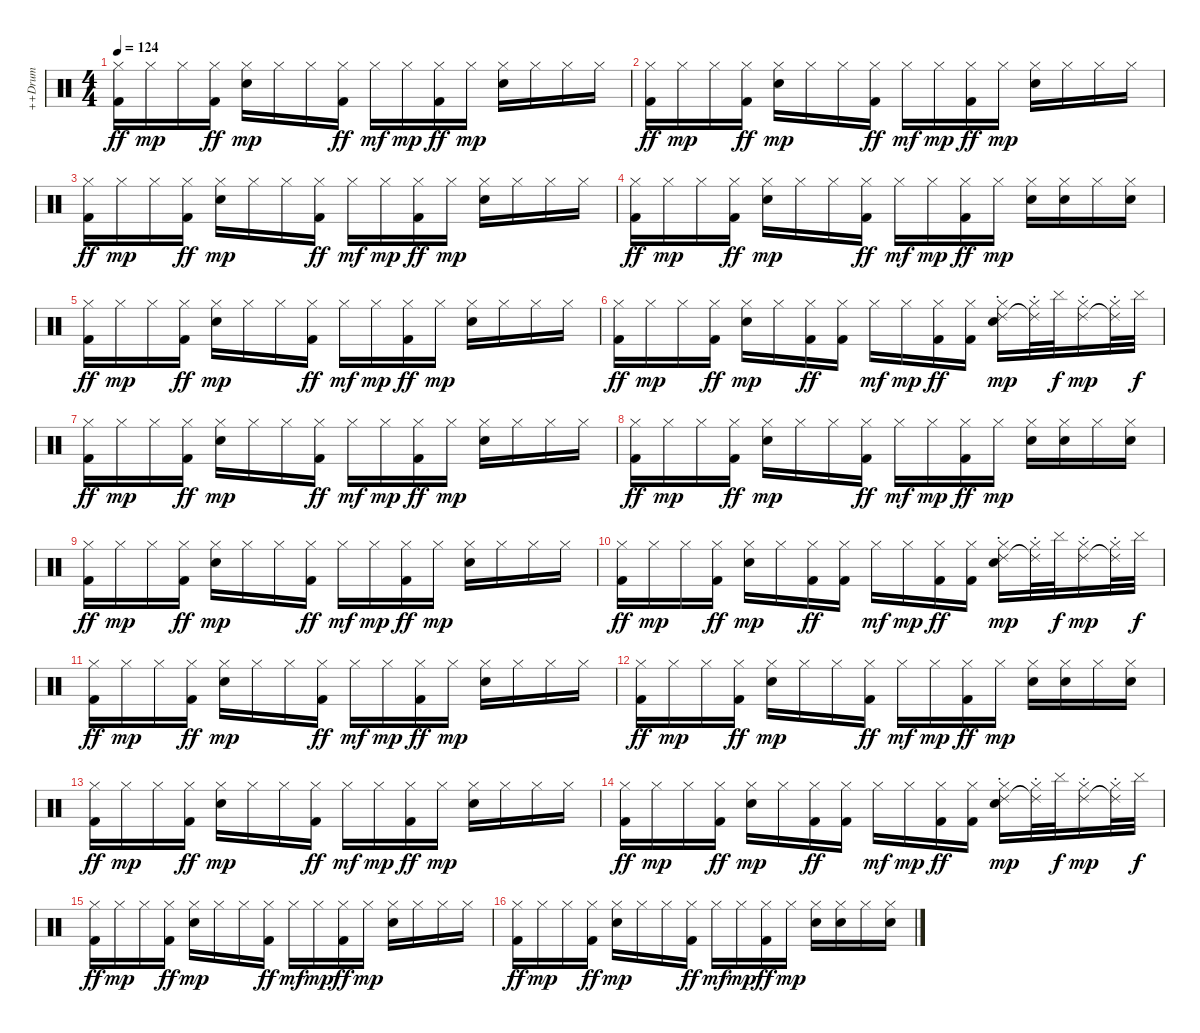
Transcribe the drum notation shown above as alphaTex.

\track ("++Drum" "++Drum") {instrument percussion}
\staff {score}
\articulation defaults
\ts (4 4)
\tempo 124
\clef neutral
\ks c
("Hi-Hat (closed)" "Kick (hit) 2").16{dy ff} "Hi-Hat (closed)".16{dy mp} "Hi-Hat (closed)".16 ("Hi-Hat (closed)" "Kick (hit) 2").16{dy ff} ("Hi-Hat (closed)" "Electric Snare (hit)").16{dy mp} "Hi-Hat (closed)".16 "Hi-Hat (closed)".16 ("Hi-Hat (closed)" "Kick (hit) 2").16{dy ff} "Hi-Hat (closed)".16{dy mf} "Hi-Hat (closed)".16{dy mp} ("Hi-Hat (closed)" "Kick (hit) 2").16{dy ff} "Hi-Hat (closed)".16{dy mp} ("Hi-Hat (closed)" "Electric Snare (hit)").16 "Hi-Hat (closed)".16 "Hi-Hat (closed)".16 "Hi-Hat (closed)".16 |
("Hi-Hat (closed)" "Kick (hit) 2").16{dy ff} "Hi-Hat (closed)".16{dy mp} "Hi-Hat (closed)".16 ("Hi-Hat (closed)" "Kick (hit) 2").16{dy ff} ("Hi-Hat (closed)" "Electric Snare (hit)").16{dy mp} "Hi-Hat (closed)".16 "Hi-Hat (closed)".16 ("Hi-Hat (closed)" "Kick (hit) 2").16{dy ff} "Hi-Hat (closed)".16{dy mf} "Hi-Hat (closed)".16{dy mp} ("Hi-Hat (closed)" "Kick (hit) 2").16{dy ff} "Hi-Hat (closed)".16{dy mp} ("Hi-Hat (closed)" "Electric Snare (hit)").16 "Hi-Hat (closed)".16 "Hi-Hat (closed)".16 "Hi-Hat (closed)".16 |
("Hi-Hat (closed)" "Kick (hit) 2").16{dy ff} "Hi-Hat (closed)".16{dy mp} "Hi-Hat (closed)".16 ("Hi-Hat (closed)" "Kick (hit) 2").16{dy ff} ("Hi-Hat (closed)" "Electric Snare (hit)").16{dy mp} "Hi-Hat (closed)".16 "Hi-Hat (closed)".16 ("Hi-Hat (closed)" "Kick (hit) 2").16{dy ff} "Hi-Hat (closed)".16{dy mf} "Hi-Hat (closed)".16{dy mp} ("Hi-Hat (closed)" "Kick (hit) 2").16{dy ff} "Hi-Hat (closed)".16{dy mp} ("Hi-Hat (closed)" "Electric Snare (hit)").16 "Hi-Hat (closed)".16 "Hi-Hat (closed)".16 "Hi-Hat (closed)".16 |
("Hi-Hat (closed)" "Kick (hit) 2").16{dy ff} "Hi-Hat (closed)".16{dy mp} "Hi-Hat (closed)".16 ("Hi-Hat (closed)" "Kick (hit) 2").16{dy ff} ("Hi-Hat (closed)" "Electric Snare (hit)").16{dy mp} "Hi-Hat (closed)".16 "Hi-Hat (closed)".16 ("Hi-Hat (closed)" "Kick (hit) 2").16{dy ff} "Hi-Hat (closed)".16{dy mf} "Hi-Hat (closed)".16{dy mp} ("Hi-Hat (closed)" "Kick (hit) 2").16{dy ff} "Hi-Hat (closed)".16{dy mp} ("Hi-Hat (closed)" "Electric Snare (hit)").16 ("Hi-Hat (closed)" "Electric Snare (hit)").16 "Hi-Hat (closed)".16 ("Hi-Hat (closed)" "Electric Snare (hit)").16 |
("Hi-Hat (closed)" "Kick (hit) 2").16{dy ff} "Hi-Hat (closed)".16{dy mp} "Hi-Hat (closed)".16 ("Hi-Hat (closed)" "Kick (hit) 2").16{dy ff} ("Hi-Hat (closed)" "Electric Snare (hit)").16{dy mp} "Hi-Hat (closed)".16 "Hi-Hat (closed)".16 ("Hi-Hat (closed)" "Kick (hit) 2").16{dy ff} "Hi-Hat (closed)".16{dy mf} "Hi-Hat (closed)".16{dy mp} ("Hi-Hat (closed)" "Kick (hit) 2").16{dy ff} "Hi-Hat (closed)".16{dy mp} ("Hi-Hat (closed)" "Electric Snare (hit)").16 "Hi-Hat (closed)".16 "Hi-Hat (closed)".16 "Hi-Hat (closed)".16 |
("Hi-Hat (closed)" "Kick (hit) 2").16{dy ff} "Hi-Hat (closed)".16{dy mp} "Hi-Hat (closed)".16 ("Hi-Hat (closed)" "Kick (hit) 2").16{dy ff} ("Hi-Hat (closed)" "Electric Snare (hit)").16{dy mp} "Hi-Hat (closed)".16 ("Hi-Hat (closed)" "Kick (hit) 2").16{dy ff} ("Hi-Hat (closed)" "Kick (hit) 2").16 "Hi-Hat (closed)".16{dy mf} "Hi-Hat (closed)".16{dy mp} ("Hi-Hat (closed)" "Kick (hit) 2").16{dy ff} ("Hi-Hat (closed)" "Kick (hit) 2").16 ("Hi-Hat (closed)" "Ride (choke) 2" "Electric Snare (hit)").16{dy mp} ("Hi-Hat (closed)" "Ride (choke) 2"{t}).32 "Cymbal (hit)".32{dy f} ("Hi-Hat (closed)" "Ride (choke) 2").16{dy mp} ("Hi-Hat (closed)" "Ride (choke) 2"{t}).32 "Cymbal (hit)".32{dy f} |
("Hi-Hat (closed)" "Kick (hit) 2").16{dy ff} "Hi-Hat (closed)".16{dy mp} "Hi-Hat (closed)".16 ("Hi-Hat (closed)" "Kick (hit) 2").16{dy ff} ("Hi-Hat (closed)" "Electric Snare (hit)").16{dy mp} "Hi-Hat (closed)".16 "Hi-Hat (closed)".16 ("Hi-Hat (closed)" "Kick (hit) 2").16{dy ff} "Hi-Hat (closed)".16{dy mf} "Hi-Hat (closed)".16{dy mp} ("Hi-Hat (closed)" "Kick (hit) 2").16{dy ff} "Hi-Hat (closed)".16{dy mp} ("Hi-Hat (closed)" "Electric Snare (hit)").16 "Hi-Hat (closed)".16 "Hi-Hat (closed)".16 "Hi-Hat (closed)".16 |
("Hi-Hat (closed)" "Kick (hit) 2").16{dy ff} "Hi-Hat (closed)".16{dy mp} "Hi-Hat (closed)".16 ("Hi-Hat (closed)" "Kick (hit) 2").16{dy ff} ("Hi-Hat (closed)" "Electric Snare (hit)").16{dy mp} "Hi-Hat (closed)".16 "Hi-Hat (closed)".16 ("Hi-Hat (closed)" "Kick (hit) 2").16{dy ff} "Hi-Hat (closed)".16{dy mf} "Hi-Hat (closed)".16{dy mp} ("Hi-Hat (closed)" "Kick (hit) 2").16{dy ff} "Hi-Hat (closed)".16{dy mp} ("Hi-Hat (closed)" "Electric Snare (hit)").16 ("Hi-Hat (closed)" "Electric Snare (hit)").16 "Hi-Hat (closed)".16 ("Hi-Hat (closed)" "Electric Snare (hit)").16 |
("Hi-Hat (closed)" "Kick (hit) 2").16{dy ff} "Hi-Hat (closed)".16{dy mp} "Hi-Hat (closed)".16 ("Hi-Hat (closed)" "Kick (hit) 2").16{dy ff} ("Hi-Hat (closed)" "Electric Snare (hit)").16{dy mp} "Hi-Hat (closed)".16 "Hi-Hat (closed)".16 ("Hi-Hat (closed)" "Kick (hit) 2").16{dy ff} "Hi-Hat (closed)".16{dy mf} "Hi-Hat (closed)".16{dy mp} ("Hi-Hat (closed)" "Kick (hit) 2").16{dy ff} "Hi-Hat (closed)".16{dy mp} ("Hi-Hat (closed)" "Electric Snare (hit)").16 "Hi-Hat (closed)".16 "Hi-Hat (closed)".16 "Hi-Hat (closed)".16 |
("Hi-Hat (closed)" "Kick (hit) 2").16{dy ff} "Hi-Hat (closed)".16{dy mp} "Hi-Hat (closed)".16 ("Hi-Hat (closed)" "Kick (hit) 2").16{dy ff} ("Hi-Hat (closed)" "Electric Snare (hit)").16{dy mp} "Hi-Hat (closed)".16 ("Hi-Hat (closed)" "Kick (hit) 2").16{dy ff} ("Hi-Hat (closed)" "Kick (hit) 2").16 "Hi-Hat (closed)".16{dy mf} "Hi-Hat (closed)".16{dy mp} ("Hi-Hat (closed)" "Kick (hit) 2").16{dy ff} ("Hi-Hat (closed)" "Kick (hit) 2").16 ("Hi-Hat (closed)" "Ride (choke) 2" "Electric Snare (hit)").16{dy mp} ("Hi-Hat (closed)" "Ride (choke) 2"{t}).32 "Cymbal (hit)".32{dy f} ("Hi-Hat (closed)" "Ride (choke) 2").16{dy mp} ("Hi-Hat (closed)" "Ride (choke) 2"{t}).32 "Cymbal (hit)".32{dy f} |
("Hi-Hat (closed)" "Kick (hit) 2").16{dy ff} "Hi-Hat (closed)".16{dy mp} "Hi-Hat (closed)".16 ("Hi-Hat (closed)" "Kick (hit) 2").16{dy ff} ("Hi-Hat (closed)" "Electric Snare (hit)").16{dy mp} "Hi-Hat (closed)".16 "Hi-Hat (closed)".16 ("Hi-Hat (closed)" "Kick (hit) 2").16{dy ff} "Hi-Hat (closed)".16{dy mf} "Hi-Hat (closed)".16{dy mp} ("Hi-Hat (closed)" "Kick (hit) 2").16{dy ff} "Hi-Hat (closed)".16{dy mp} ("Hi-Hat (closed)" "Electric Snare (hit)").16 "Hi-Hat (closed)".16 "Hi-Hat (closed)".16 "Hi-Hat (closed)".16 |
("Hi-Hat (closed)" "Kick (hit) 2").16{dy ff} "Hi-Hat (closed)".16{dy mp} "Hi-Hat (closed)".16 ("Hi-Hat (closed)" "Kick (hit) 2").16{dy ff} ("Hi-Hat (closed)" "Electric Snare (hit)").16{dy mp} "Hi-Hat (closed)".16 "Hi-Hat (closed)".16 ("Hi-Hat (closed)" "Kick (hit) 2").16{dy ff} "Hi-Hat (closed)".16{dy mf} "Hi-Hat (closed)".16{dy mp} ("Hi-Hat (closed)" "Kick (hit) 2").16{dy ff} "Hi-Hat (closed)".16{dy mp} ("Hi-Hat (closed)" "Electric Snare (hit)").16 ("Hi-Hat (closed)" "Electric Snare (hit)").16 "Hi-Hat (closed)".16 ("Hi-Hat (closed)" "Electric Snare (hit)").16 |
("Hi-Hat (closed)" "Kick (hit) 2").16{dy ff} "Hi-Hat (closed)".16{dy mp} "Hi-Hat (closed)".16 ("Hi-Hat (closed)" "Kick (hit) 2").16{dy ff} ("Hi-Hat (closed)" "Electric Snare (hit)").16{dy mp} "Hi-Hat (closed)".16 "Hi-Hat (closed)".16 ("Hi-Hat (closed)" "Kick (hit) 2").16{dy ff} "Hi-Hat (closed)".16{dy mf} "Hi-Hat (closed)".16{dy mp} ("Hi-Hat (closed)" "Kick (hit) 2").16{dy ff} "Hi-Hat (closed)".16{dy mp} ("Hi-Hat (closed)" "Electric Snare (hit)").16 "Hi-Hat (closed)".16 "Hi-Hat (closed)".16 "Hi-Hat (closed)".16 |
("Hi-Hat (closed)" "Kick (hit) 2").16{dy ff} "Hi-Hat (closed)".16{dy mp} "Hi-Hat (closed)".16 ("Hi-Hat (closed)" "Kick (hit) 2").16{dy ff} ("Hi-Hat (closed)" "Electric Snare (hit)").16{dy mp} "Hi-Hat (closed)".16 ("Hi-Hat (closed)" "Kick (hit) 2").16{dy ff} ("Hi-Hat (closed)" "Kick (hit) 2").16 "Hi-Hat (closed)".16{dy mf} "Hi-Hat (closed)".16{dy mp} ("Hi-Hat (closed)" "Kick (hit) 2").16{dy ff} ("Hi-Hat (closed)" "Kick (hit) 2").16 ("Hi-Hat (closed)" "Ride (choke) 2" "Electric Snare (hit)").16{dy mp} ("Hi-Hat (closed)" "Ride (choke) 2"{t}).32 "Cymbal (hit)".32{dy f} ("Hi-Hat (closed)" "Ride (choke) 2").16{dy mp} ("Hi-Hat (closed)" "Ride (choke) 2"{t}).32 "Cymbal (hit)".32{dy f} |
("Hi-Hat (closed)" "Kick (hit) 2").16{dy ff} "Hi-Hat (closed)".16{dy mp} "Hi-Hat (closed)".16 ("Hi-Hat (closed)" "Kick (hit) 2").16{dy ff} ("Hi-Hat (closed)" "Electric Snare (hit)").16{dy mp} "Hi-Hat (closed)".16 "Hi-Hat (closed)".16 ("Hi-Hat (closed)" "Kick (hit) 2").16{dy ff} "Hi-Hat (closed)".16{dy mf} "Hi-Hat (closed)".16{dy mp} ("Hi-Hat (closed)" "Kick (hit) 2").16{dy ff} "Hi-Hat (closed)".16{dy mp} ("Hi-Hat (closed)" "Electric Snare (hit)").16 "Hi-Hat (closed)".16 "Hi-Hat (closed)".16 "Hi-Hat (closed)".16 |
("Hi-Hat (closed)" "Kick (hit) 2").16{dy ff} "Hi-Hat (closed)".16{dy mp} "Hi-Hat (closed)".16 ("Hi-Hat (closed)" "Kick (hit) 2").16{dy ff} ("Hi-Hat (closed)" "Electric Snare (hit)").16{dy mp} "Hi-Hat (closed)".16 "Hi-Hat (closed)".16 ("Hi-Hat (closed)" "Kick (hit) 2").16{dy ff} "Hi-Hat (closed)".16{dy mf} "Hi-Hat (closed)".16{dy mp} ("Hi-Hat (closed)" "Kick (hit) 2").16{dy ff} "Hi-Hat (closed)".16{dy mp} ("Hi-Hat (closed)" "Electric Snare (hit)").16 ("Hi-Hat (closed)" "Electric Snare (hit)").16 "Hi-Hat (closed)".16 ("Hi-Hat (closed)" "Electric Snare (hit)").16
